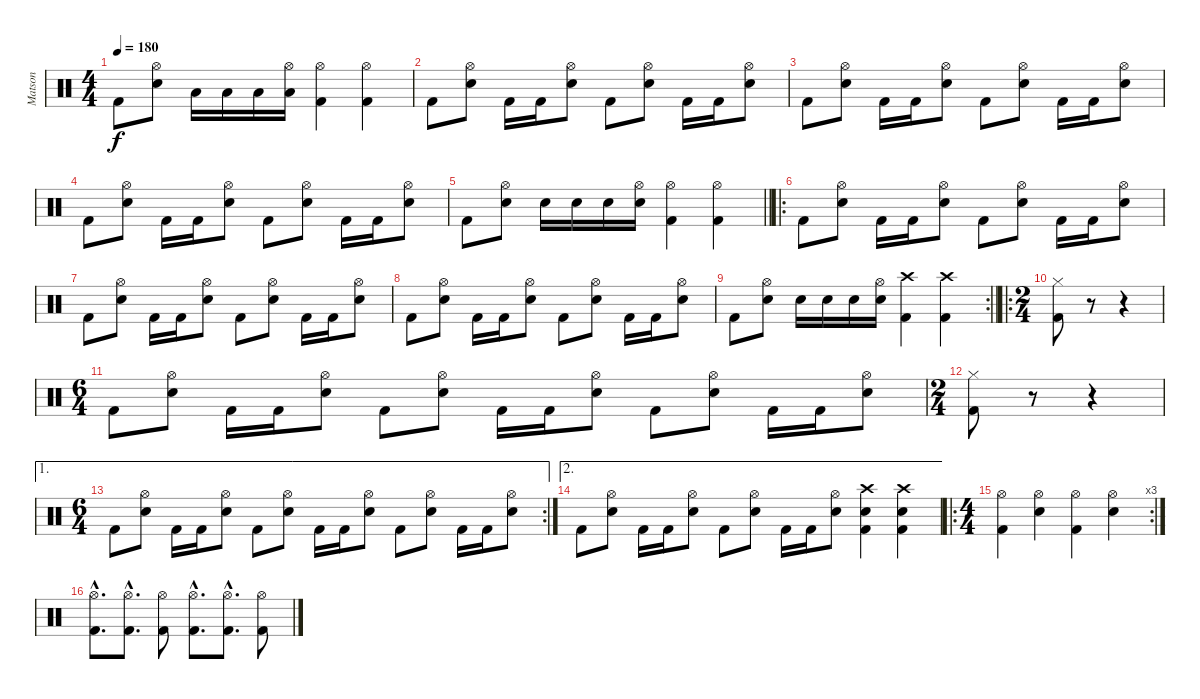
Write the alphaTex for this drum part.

\track ("Matson" "Matson") {instrument percussion}
\staff {score}
\articulation defaults
\ts (4 4)
\tempo 180
\clef neutral
\ks c "Kick (hit) 2".8{dy f}
("Hi-Hat (open)" "Snare (hit) 2").8 "Low Tom (hit)".16 "Low Tom (hit)".16 "Low Tom (hit)".16 ("Hi-Hat (open)" "Low Tom (hit)").16 ("Hi-Hat (open)" "Kick (hit) 2").4 ("Hi-Hat (open)" "Kick (hit) 2").4 |
"Kick (hit) 2".8 ("Hi-Hat (open)" "Snare (hit) 2").8 "Kick (hit) 2".16 "Kick (hit) 2".16 ("Hi-Hat (open)" "Snare (hit) 2").8 "Kick (hit) 2".8 ("Hi-Hat (open)" "Snare (hit) 2").8 "Kick (hit) 2".16 "Kick (hit) 2".16 ("Hi-Hat (open)" "Snare (hit) 2").8 |
"Kick (hit) 2".8 ("Hi-Hat (open)" "Snare (hit) 2").8 "Kick (hit) 2".16 "Kick (hit) 2".16 ("Hi-Hat (open)" "Snare (hit) 2").8 "Kick (hit) 2".8 ("Hi-Hat (open)" "Snare (hit) 2").8 "Kick (hit) 2".16 "Kick (hit) 2".16 ("Hi-Hat (open)" "Snare (hit) 2").8 |
"Kick (hit) 2".8 ("Hi-Hat (open)" "Snare (hit) 2").8 "Kick (hit) 2".16 "Kick (hit) 2".16 ("Hi-Hat (open)" "Snare (hit) 2").8 "Kick (hit) 2".8 ("Hi-Hat (open)" "Snare (hit) 2").8 "Kick (hit) 2".16 "Kick (hit) 2".16 ("Hi-Hat (open)" "Snare (hit) 2").8 |
\barLineRight lightlight "Kick (hit) 2".8
("Hi-Hat (open)" "Snare (hit) 2").8 "Snare (hit) 2".16 "Snare (hit) 2".16 "Snare (hit) 2".16 ("Hi-Hat (open)" "Snare (hit) 2").16 ("Hi-Hat (open)" "Kick (hit) 2").4 ("Hi-Hat (open)" "Kick (hit) 2").4 |
\ro
\section ("" "")
"Kick (hit) 2".8 ("Hi-Hat (open)" "Snare (hit) 2").8 "Kick (hit) 2".16 "Kick (hit) 2".16 ("Hi-Hat (open)" "Snare (hit) 2").8 "Kick (hit) 2".8 ("Hi-Hat (open)" "Snare (hit) 2").8 "Kick (hit) 2".16 "Kick (hit) 2".16 ("Hi-Hat (open)" "Snare (hit) 2").8 |
"Kick (hit) 2".8 ("Hi-Hat (open)" "Snare (hit) 2").8 "Kick (hit) 2".16 "Kick (hit) 2".16 ("Hi-Hat (open)" "Snare (hit) 2").8 "Kick (hit) 2".8 ("Hi-Hat (open)" "Snare (hit) 2").8 "Kick (hit) 2".16 "Kick (hit) 2".16 ("Hi-Hat (open)" "Snare (hit) 2").8 |
"Kick (hit) 2".8 ("Hi-Hat (open)" "Snare (hit) 2").8 "Kick (hit) 2".16 "Kick (hit) 2".16 ("Hi-Hat (open)" "Snare (hit) 2").8 "Kick (hit) 2".8 ("Hi-Hat (open)" "Snare (hit) 2").8 "Kick (hit) 2".16 "Kick (hit) 2".16 ("Hi-Hat (open)" "Snare (hit) 2").8 |
\rc 2
\barLineRight lightlight "Kick (hit) 2".8
("Hi-Hat (open)" "Snare (hit) 2").8 "Snare (hit) 2".16 "Snare (hit) 2".16 "Snare (hit) 2".16 ("Hi-Hat (open)" "Snare (hit) 2").16 ("Crash high (hit)" "Kick (hit) 2").4 ("Crash high (hit)" "Kick (hit) 2").4 |
\ro
\ts (2 4)
\section ("" "")
("Hi-Hat (closed)" "Kick (hit) 2").8 r.8 r.4 |
\ts (6 4)
"Kick (hit) 2".8 ("Hi-Hat (open)" "Snare (hit) 2").8 "Kick (hit) 2".16 "Kick (hit) 2".16 ("Hi-Hat (open)" "Snare (hit) 2").8 "Kick (hit) 2".8 ("Hi-Hat (open)" "Snare (hit) 2").8 "Kick (hit) 2".16 "Kick (hit) 2".16 ("Hi-Hat (open)" "Snare (hit) 2").8 "Kick (hit) 2".8 ("Hi-Hat (open)" "Snare (hit) 2").8 "Kick (hit) 2".16 "Kick (hit) 2".16 ("Hi-Hat (open)" "Snare (hit) 2").8 |
\ts (2 4)
("Hi-Hat (closed)" "Kick (hit) 2").8 r.8 r.4 |
\ae 1
\rc 2
\ts (6 4)
"Kick (hit) 2".8 ("Hi-Hat (open)" "Snare (hit) 2").8 "Kick (hit) 2".16 "Kick (hit) 2".16 ("Hi-Hat (open)" "Snare (hit) 2").8 "Kick (hit) 2".8 ("Hi-Hat (open)" "Snare (hit) 2").8 "Kick (hit) 2".16 "Kick (hit) 2".16 ("Hi-Hat (open)" "Snare (hit) 2").8 "Kick (hit) 2".8 ("Hi-Hat (open)" "Snare (hit) 2").8 "Kick (hit) 2".16 "Kick (hit) 2".16 ("Hi-Hat (open)" "Snare (hit) 2").8 |
\ae 2 "Kick (hit) 2".8
("Hi-Hat (open)" "Snare (hit) 2").8 "Kick (hit) 2".16 "Kick (hit) 2".16 ("Hi-Hat (open)" "Snare (hit) 2").8 "Kick (hit) 2".8 ("Hi-Hat (open)" "Snare (hit) 2").8 "Kick (hit) 2".16 "Kick (hit) 2".16 ("Hi-Hat (open)" "Snare (hit) 2").8 ("Crash high (hit)" "Snare (hit) 2" "Kick (hit) 2").4 ("Crash high (hit)" "Snare (hit) 2" "Kick (hit) 2").4 |
\ro
\rc 3
\ts (4 4)
\section ("" "")
("Hi-Hat (open)" "Kick (hit) 2").4 ("Hi-Hat (open)" "Snare (hit) 2").4 ("Hi-Hat (open)" "Kick (hit) 2").4 ("Hi-Hat (open)" "Snare (hit) 2").4 |
("Hi-Hat (open)"{hac} "Kick (hit) 2"{hac}).8{d} ("Hi-Hat (open)"{hac} "Kick (hit) 2"{hac}).8{d} ("Hi-Hat (open)" "Kick (hit) 2").8 ("Hi-Hat (open)"{hac} "Kick (hit) 2"{hac}).8{d} ("Hi-Hat (open)"{hac} "Kick (hit) 2"{hac}).8{d} ("Hi-Hat (open)" "Kick (hit) 2").8
